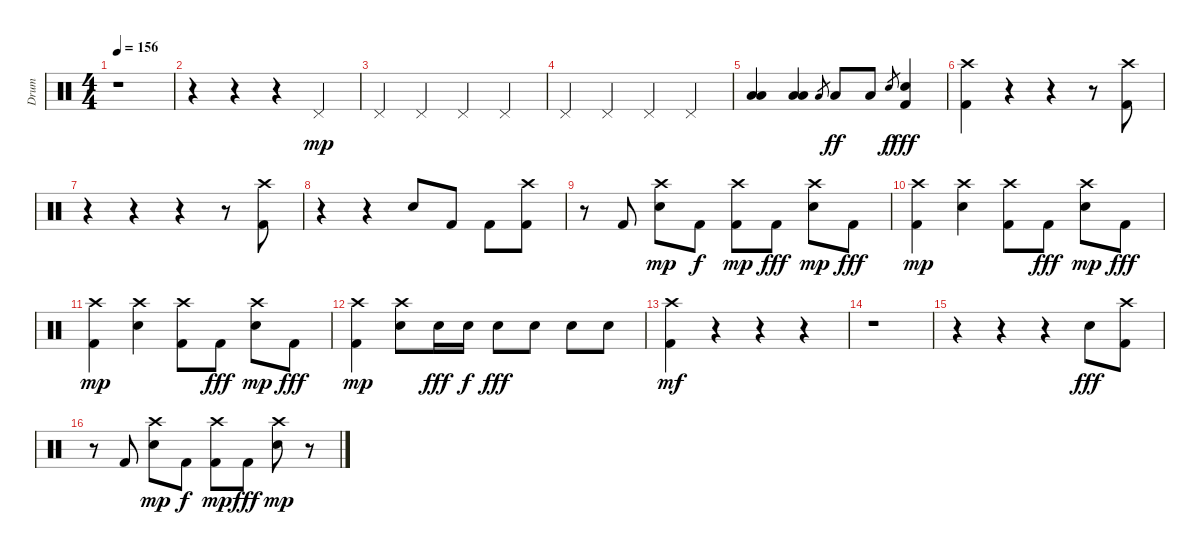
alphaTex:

\track ("Drum" "Drum") {instrument percussion}
\staff {score}
\articulation defaults
\ts (4 4)
\tempo 156
\clef neutral
\ks c
r.1{dy mp} |
r.4 r.4 r.4 "Pedal Hi-Hat (hit)".4 |
"Pedal Hi-Hat (hit)".4 "Pedal Hi-Hat (hit)".4 "Pedal Hi-Hat (hit)".4 "Pedal Hi-Hat (hit)".4 |
"Pedal Hi-Hat (hit)".4 "Pedal Hi-Hat (hit)".4 "Pedal Hi-Hat (hit)".4 "Pedal Hi-Hat (hit)".4 |
("Low Tom (hit)" "Low Tom (hit)"{tr (45 32)}).4 ("Low Tom (hit)" "Low Tom (hit)"{tr (45 32)}).4 "Low Tom (hit)".8{gr} "Low Tom (hit)".8{dy ff} "Low Tom (hit)".8 "Electric Snare (hit)".8{gr dy f} ("Electric Snare (hit)" "Kick (hit) 2").4{dy fff} |
("Kick (hit) 2" "Crash high (hit)").4 r.4 r.4 r.8 ("Kick (hit) 2" "Crash high (hit)").8 |
r.4 r.4 r.4 r.8 ("Kick (hit) 2" "Crash high (hit)").8 |
r.4 r.4 "Electric Snare (hit)".8 "Kick (hit) 2".8 "Kick (hit) 2".8 ("Kick (hit) 2" "Crash high (hit)").8 |
r.8 "Kick (hit) 2".8 ("Electric Snare (hit)" "Crash high (hit)").8{dy mp} "Kick (hit) 2".8{dy f} ("Kick (hit) 2" "Crash high (hit)").8{dy mp} "Kick (hit) 2".8{dy fff} ("Electric Snare (hit)" "Crash high (hit)").8{dy mp} "Kick (hit) 2".8{dy fff} |
("Kick (hit) 2" "Crash high (hit)").4{dy mp} ("Electric Snare (hit)" "Crash high (hit)").4 ("Kick (hit) 2" "Crash high (hit)").8 "Kick (hit) 2".8{dy fff} ("Electric Snare (hit)" "Crash high (hit)").8{dy mp} "Kick (hit) 2".8{dy fff} |
("Kick (hit) 2" "Crash high (hit)").4{dy mp} ("Electric Snare (hit)" "Crash high (hit)").4 ("Kick (hit) 2" "Crash high (hit)").8 "Kick (hit) 2".8{dy fff} ("Electric Snare (hit)" "Crash high (hit)").8{dy mp} "Kick (hit) 2".8{dy fff} |
("Kick (hit) 2" "Crash high (hit)").4{dy mp} ("Electric Snare (hit)" "Crash high (hit)").8 "Electric Snare (hit)".16{dy fff} "Electric Snare (hit)".16{dy f} "Electric Snare (hit)".8{dy fff} "Electric Snare (hit)".8 "Electric Snare (hit)".8 "Electric Snare (hit)".8 |
("Kick (hit) 2" "Crash high (hit)").4{dy mf} r.4 r.4 r.4 |
r.1 |
r.4 r.4 r.4 "Electric Snare (hit)".8{dy fff} ("Kick (hit) 2" "Crash high (hit)").8 |
r.8 "Kick (hit) 2".8 ("Electric Snare (hit)" "Crash high (hit)").8{dy mp} "Kick (hit) 2".8{dy f} ("Kick (hit) 2" "Crash high (hit)").8{dy mp} "Kick (hit) 2".8{dy fff} ("Electric Snare (hit)" "Crash high (hit)").8{dy mp} r.8
